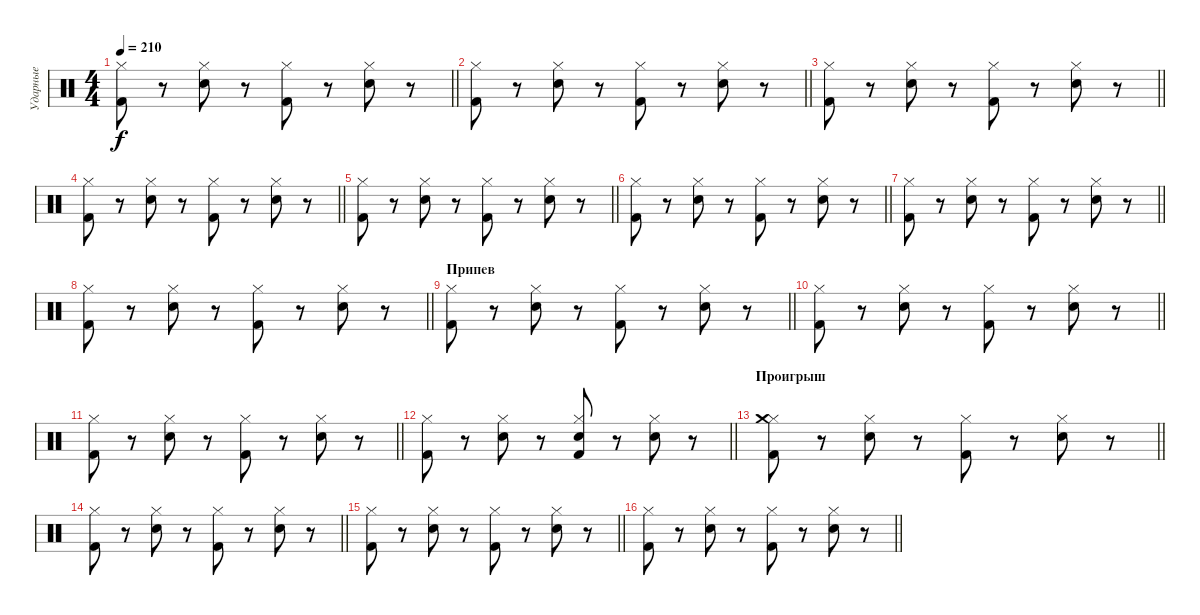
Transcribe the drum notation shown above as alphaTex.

\track ("Ударные" "Ударные") {instrument percussion}
\staff {score}
\articulation defaults
\ts (4 4)
\tempo 210
\clef neutral
\barLineRight lightlight
\ks c
("Kick (hit) 2" "Hi-Hat (closed)").8{dy f} r.8 ("Snare (hit) 2" "Hi-Hat (closed)").8 r.8 ("Kick (hit) 2" "Hi-Hat (closed)").8 r.8 ("Snare (hit) 2" "Hi-Hat (closed)").8 r.8 |
\barLineRight lightlight
("Kick (hit) 2" "Hi-Hat (closed)").8 r.8 ("Snare (hit) 2" "Hi-Hat (closed)").8 r.8 ("Kick (hit) 2" "Hi-Hat (closed)").8 r.8 ("Snare (hit) 2" "Hi-Hat (closed)").8 r.8 |
\barLineRight lightlight
("Kick (hit) 2" "Hi-Hat (closed)").8 r.8 ("Snare (hit) 2" "Hi-Hat (closed)").8 r.8 ("Kick (hit) 2" "Hi-Hat (closed)").8 r.8 ("Snare (hit) 2" "Hi-Hat (closed)").8 r.8 |
\barLineRight lightlight
("Kick (hit) 2" "Hi-Hat (closed)").8 r.8 ("Snare (hit) 2" "Hi-Hat (closed)").8 r.8 ("Kick (hit) 2" "Hi-Hat (closed)").8 r.8 ("Snare (hit) 2" "Hi-Hat (closed)").8 r.8 |
\barLineRight lightlight
("Kick (hit) 2" "Hi-Hat (closed)").8 r.8 ("Snare (hit) 2" "Hi-Hat (closed)").8 r.8 ("Kick (hit) 2" "Hi-Hat (closed)").8 r.8 ("Snare (hit) 2" "Hi-Hat (closed)").8 r.8 |
\barLineRight lightlight
("Kick (hit) 2" "Hi-Hat (closed)").8 r.8 ("Snare (hit) 2" "Hi-Hat (closed)").8 r.8 ("Kick (hit) 2" "Hi-Hat (closed)").8 r.8 ("Snare (hit) 2" "Hi-Hat (closed)").8 r.8 |
\barLineRight lightlight
("Kick (hit) 2" "Hi-Hat (closed)").8 r.8 ("Snare (hit) 2" "Hi-Hat (closed)").8 r.8 ("Kick (hit) 2" "Hi-Hat (closed)").8 r.8 ("Snare (hit) 2" "Hi-Hat (closed)").8 r.8 |
\barLineRight lightlight
("Kick (hit) 2" "Hi-Hat (closed)").8 r.8 ("Snare (hit) 2" "Hi-Hat (closed)").8 r.8 ("Kick (hit) 2" "Hi-Hat (closed)").8 r.8 ("Snare (hit) 2" "Hi-Hat (closed)").8 r.8 |
\section ("" "Припев")
\barLineRight lightlight
("Kick (hit) 2" "Hi-Hat (closed)").8 r.8 ("Snare (hit) 2" "Hi-Hat (closed)").8 r.8 ("Kick (hit) 2" "Hi-Hat (closed)").8 r.8 ("Snare (hit) 2" "Hi-Hat (closed)").8 r.8 |
\barLineRight lightlight
("Kick (hit) 2" "Hi-Hat (closed)").8 r.8 ("Snare (hit) 2" "Hi-Hat (closed)").8 r.8 ("Kick (hit) 2" "Hi-Hat (closed)").8 r.8 ("Snare (hit) 2" "Hi-Hat (closed)").8 r.8 |
\barLineRight lightlight
("Kick (hit) 2" "Hi-Hat (closed)").8 r.8 ("Snare (hit) 2" "Hi-Hat (closed)").8 r.8 ("Kick (hit) 2" "Hi-Hat (closed)").8 r.8 ("Snare (hit) 2" "Hi-Hat (closed)").8 r.8 |
\barLineRight lightlight
("Kick (hit) 2" "Hi-Hat (closed)").8 r.8 ("Snare (hit) 2" "Hi-Hat (closed)").8 r.8 ("Kick (hit) 2" "Snare (hit) 2" "Hi-Hat (closed)").8 r.8 ("Snare (hit) 2" "Hi-Hat (closed)").8 r.8 |
\section ("" "Проигрыш")
\barLineRight lightlight
("Kick (hit) 2" "Hi-Hat (closed)" "Crash medium (hit)").8 r.8 ("Snare (hit) 2" "Hi-Hat (closed)").8 r.8 ("Kick (hit) 2" "Hi-Hat (closed)").8 r.8 ("Snare (hit) 2" "Hi-Hat (closed)").8 r.8 |
\barLineRight lightlight
("Kick (hit) 2" "Hi-Hat (closed)").8 r.8 ("Snare (hit) 2" "Hi-Hat (closed)").8 r.8 ("Kick (hit) 2" "Hi-Hat (closed)").8 r.8 ("Snare (hit) 2" "Hi-Hat (closed)").8 r.8 |
\barLineRight lightlight
("Kick (hit) 2" "Hi-Hat (closed)").8 r.8 ("Snare (hit) 2" "Hi-Hat (closed)").8 r.8 ("Kick (hit) 2" "Hi-Hat (closed)").8 r.8 ("Snare (hit) 2" "Hi-Hat (closed)").8 r.8 |
\barLineRight lightlight
("Kick (hit) 2" "Hi-Hat (closed)").8 r.8 ("Snare (hit) 2" "Hi-Hat (closed)").8 r.8 ("Kick (hit) 2" "Hi-Hat (closed)").8 r.8 ("Snare (hit) 2" "Hi-Hat (closed)").8 r.8
